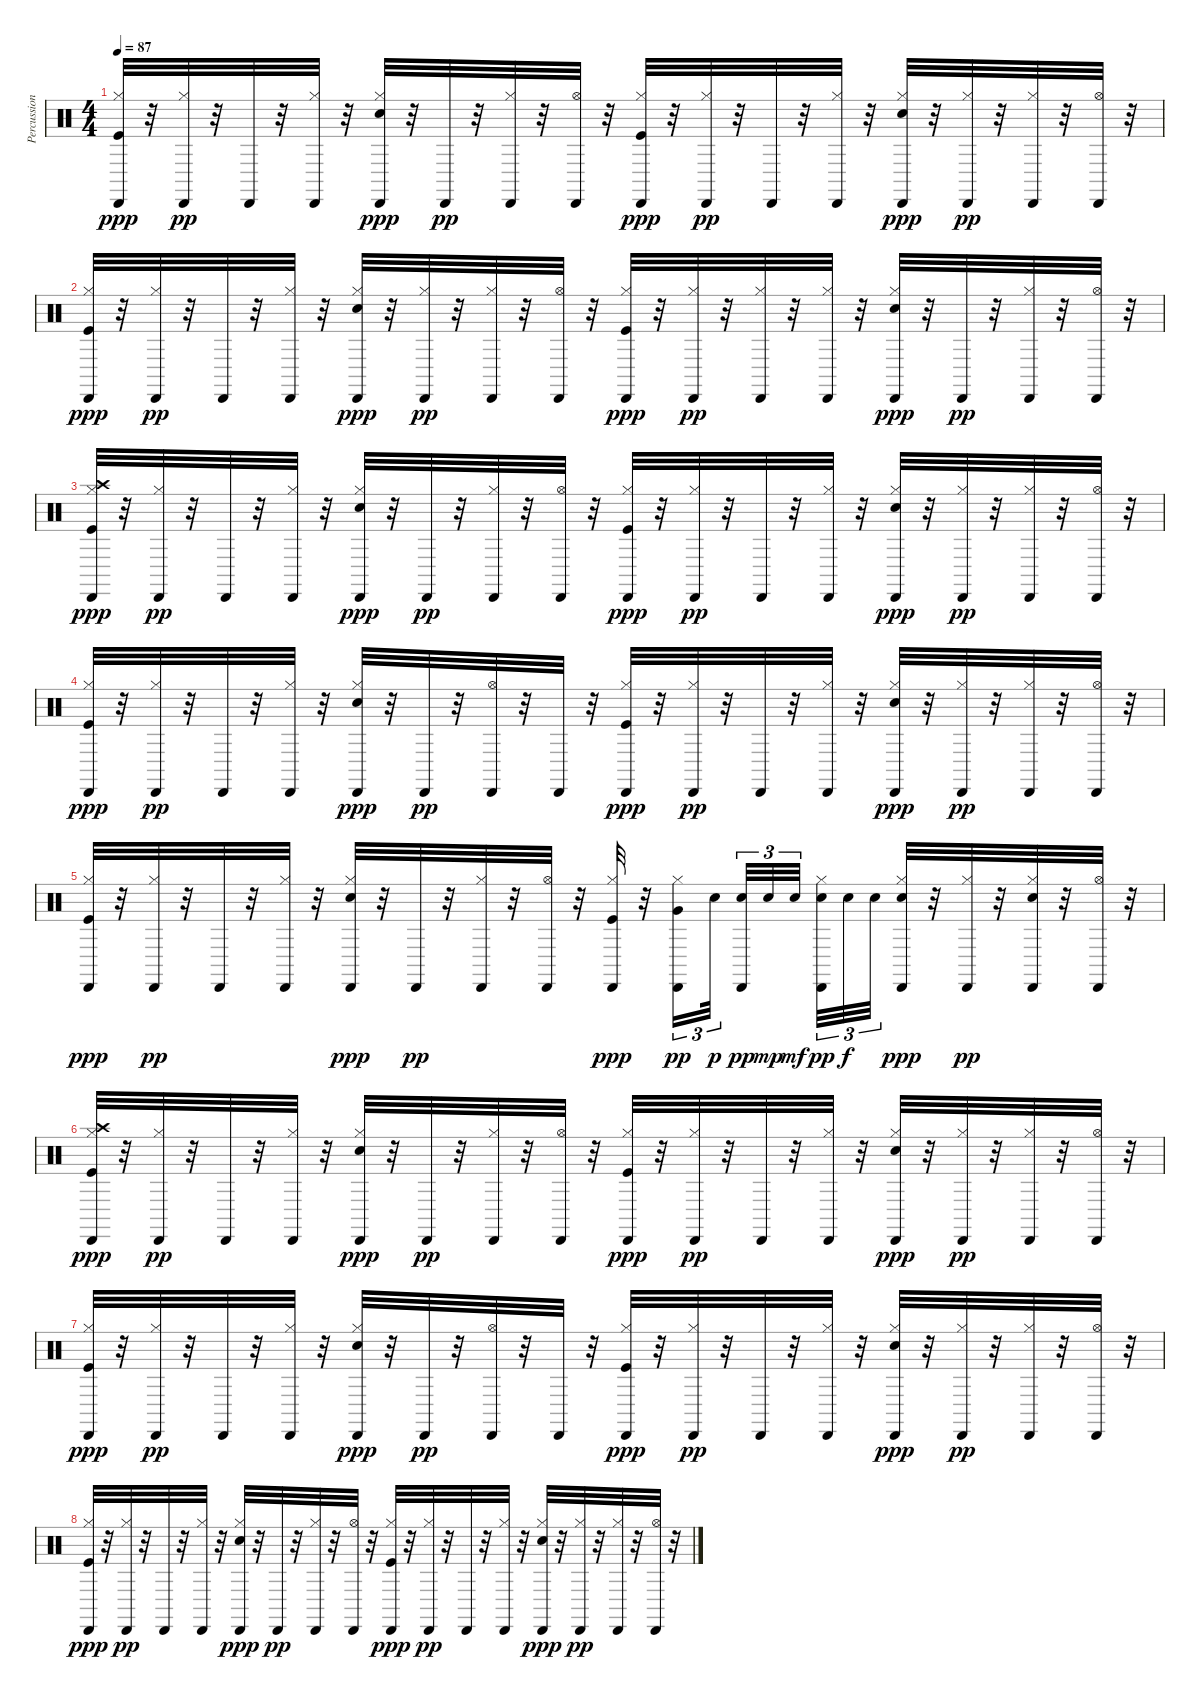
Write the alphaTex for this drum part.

\track ("Percussion" "Percussion") {instrument percussion}
\staff {score}
\articulation defaults
\ts (4 4)
\tempo 87
\clef neutral
\ks c
("Kick (hit)" "Hi-Hat (closed)" "Cabasa (hit)").32{dy ppp} r.32 ("Hi-Hat (closed)" "Cabasa (hit)").32{dy pp} r.32 "Cabasa (hit)".32 r.32 ("Hi-Hat (closed)" "Cabasa (hit)").32 r.32 ("Snare (hit) 2" "Hi-Hat (closed)" "Cabasa (hit)").32{dy ppp} r.32 "Cabasa (hit)".32{dy pp} r.32 ("Hi-Hat (closed)" "Cabasa (hit)").32 r.32 ("Hi-Hat (open)" "Cabasa (hit)").32 r.32 ("Kick (hit)" "Hi-Hat (closed)" "Cabasa (hit)").32{dy ppp} r.32 ("Hi-Hat (closed)" "Cabasa (hit)").32{dy pp} r.32 "Cabasa (hit)".32 r.32 ("Hi-Hat (closed)" "Cabasa (hit)").32 r.32 ("Snare (hit) 2" "Hi-Hat (closed)" "Cabasa (hit)").32{dy ppp} r.32 ("Hi-Hat (closed)" "Cabasa (hit)").32{dy pp} r.32 ("Hi-Hat (closed)" "Cabasa (hit)").32 r.32 ("Hi-Hat (open)" "Cabasa (hit)").32 r.32 |
("Kick (hit)" "Hi-Hat (closed)" "Cabasa (hit)").32{dy ppp} r.32 ("Hi-Hat (closed)" "Cabasa (hit)").32{dy pp} r.32 "Cabasa (hit)".32 r.32 ("Hi-Hat (closed)" "Cabasa (hit)").32 r.32 ("Snare (hit) 2" "Hi-Hat (closed)" "Cabasa (hit)").32{dy ppp} r.32 ("Hi-Hat (closed)" "Cabasa (hit)").32{dy pp} r.32 ("Hi-Hat (closed)" "Cabasa (hit)").32 r.32 ("Hi-Hat (open)" "Cabasa (hit)").32 r.32 ("Kick (hit)" "Hi-Hat (closed)" "Cabasa (hit)").32{dy ppp} r.32 ("Hi-Hat (closed)" "Cabasa (hit)").32{dy pp} r.32 ("Hi-Hat (closed)" "Cabasa (hit)").32 r.32 ("Hi-Hat (closed)" "Cabasa (hit)").32 r.32 ("Snare (hit) 2" "Hi-Hat (closed)" "Cabasa (hit)").32{dy ppp} r.32 "Cabasa (hit)".32{dy pp} r.32 ("Hi-Hat (closed)" "Cabasa (hit)").32 r.32 ("Hi-Hat (open)" "Cabasa (hit)").32 r.32 |
("Kick (hit)" "Hi-Hat (closed)" "Crash high (hit)" "Cabasa (hit)").32{dy ppp} r.32 ("Hi-Hat (closed)" "Cabasa (hit)").32{dy pp} r.32 "Cabasa (hit)".32 r.32 ("Hi-Hat (closed)" "Cabasa (hit)").32 r.32 ("Snare (hit) 2" "Hi-Hat (closed)" "Cabasa (hit)").32{dy ppp} r.32 "Cabasa (hit)".32{dy pp} r.32 ("Hi-Hat (closed)" "Cabasa (hit)").32 r.32 ("Hi-Hat (open)" "Cabasa (hit)").32 r.32 ("Kick (hit)" "Hi-Hat (closed)" "Cabasa (hit)").32{dy ppp} r.32 ("Hi-Hat (closed)" "Cabasa (hit)").32{dy pp} r.32 "Cabasa (hit)".32 r.32 ("Hi-Hat (closed)" "Cabasa (hit)").32 r.32 ("Snare (hit) 2" "Hi-Hat (closed)" "Cabasa (hit)").32{dy ppp} r.32 ("Hi-Hat (closed)" "Cabasa (hit)").32{dy pp} r.32 ("Hi-Hat (closed)" "Cabasa (hit)").32 r.32 ("Hi-Hat (open)" "Cabasa (hit)").32 r.32 |
("Kick (hit)" "Hi-Hat (closed)" "Cabasa (hit)").32{dy ppp} r.32 ("Hi-Hat (closed)" "Cabasa (hit)").32{dy pp} r.32 "Cabasa (hit)".32 r.32 ("Hi-Hat (closed)" "Cabasa (hit)").32 r.32 ("Snare (hit) 2" "Hi-Hat (closed)" "Cabasa (hit)").32{dy ppp} r.32 "Cabasa (hit)".32{dy pp} r.32 ("Hi-Hat (open)" "Cabasa (hit)").32 r.32 "Cabasa (hit)".32 r.32 ("Kick (hit)" "Hi-Hat (closed)" "Cabasa (hit)").32{dy ppp} r.32 ("Hi-Hat (closed)" "Cabasa (hit)").32{dy pp} r.32 "Cabasa (hit)".32 r.32 ("Hi-Hat (closed)" "Cabasa (hit)").32 r.32 ("Snare (hit) 2" "Hi-Hat (closed)" "Cabasa (hit)").32{dy ppp} r.32 ("Hi-Hat (closed)" "Cabasa (hit)").32{dy pp} r.32 ("Hi-Hat (closed)" "Cabasa (hit)").32 r.32 ("Hi-Hat (open)" "Cabasa (hit)").32 r.32 |
("Kick (hit)" "Hi-Hat (closed)" "Cabasa (hit)").32{dy ppp} r.32 ("Hi-Hat (closed)" "Cabasa (hit)").32{dy pp} r.32 "Cabasa (hit)".32 r.32 ("Hi-Hat (closed)" "Cabasa (hit)").32 r.32 ("Snare (hit) 2" "Hi-Hat (closed)" "Cabasa (hit)").32{dy ppp} r.32 "Cabasa (hit)".32{dy pp} r.32 ("Hi-Hat (closed)" "Cabasa (hit)").32 r.32 ("Hi-Hat (open)" "Cabasa (hit)").32 r.32 ("Kick (hit)" "Hi-Hat (closed)" "Cabasa (hit)").32{dy ppp} r.32 ("Hi-Hat (closed)" "Very Low Tom (hit)" "Cabasa (hit)").16{tu (3 2) dy pp} "Snare (hit) 2".32{tu (3 2) dy p beam splitsecondary} ("Snare (hit) 2" "Cabasa (hit)").32{tu (3 2) dy pp} "Snare (hit) 2".32{tu (3 2) dy mp} "Snare (hit) 2".32{tu (3 2) dy mf beam splitsecondary} ("Snare (hit) 2" "Hi-Hat (closed)" "Cabasa (hit)").32{tu (3 2) dy pp} "Snare (hit) 2".32{tu (3 2) dy f} "Snare (hit) 2".32{tu (3 2)} ("Snare (hit) 2" "Hi-Hat (closed)" "Cabasa (hit)").32{dy ppp} r.32 ("Hi-Hat (closed)" "Cabasa (hit)").32{dy pp} r.32 ("Snare (hit) 2" "Hi-Hat (closed)" "Cabasa (hit)").32 r.32 ("Hi-Hat (open)" "Cabasa (hit)").32 r.32 |
("Kick (hit)" "Hi-Hat (closed)" "Crash high (hit)" "Cabasa (hit)").32{dy ppp} r.32 ("Hi-Hat (closed)" "Cabasa (hit)").32{dy pp} r.32 "Cabasa (hit)".32 r.32 ("Hi-Hat (closed)" "Cabasa (hit)").32 r.32 ("Snare (hit) 2" "Hi-Hat (closed)" "Cabasa (hit)").32{dy ppp} r.32 "Cabasa (hit)".32{dy pp} r.32 ("Hi-Hat (closed)" "Cabasa (hit)").32 r.32 ("Hi-Hat (open)" "Cabasa (hit)").32 r.32 ("Kick (hit)" "Hi-Hat (closed)" "Cabasa (hit)").32{dy ppp} r.32 ("Hi-Hat (closed)" "Cabasa (hit)").32{dy pp} r.32 "Cabasa (hit)".32 r.32 ("Hi-Hat (closed)" "Cabasa (hit)").32 r.32 ("Snare (hit) 2" "Hi-Hat (closed)" "Cabasa (hit)").32{dy ppp} r.32 ("Hi-Hat (closed)" "Cabasa (hit)").32{dy pp} r.32 ("Hi-Hat (closed)" "Cabasa (hit)").32 r.32 ("Hi-Hat (open)" "Cabasa (hit)").32 r.32 |
("Kick (hit)" "Hi-Hat (closed)" "Cabasa (hit)").32{dy ppp} r.32 ("Hi-Hat (closed)" "Cabasa (hit)").32{dy pp} r.32 "Cabasa (hit)".32 r.32 ("Hi-Hat (closed)" "Cabasa (hit)").32 r.32 ("Snare (hit) 2" "Hi-Hat (closed)" "Cabasa (hit)").32{dy ppp} r.32 "Cabasa (hit)".32{dy pp} r.32 ("Hi-Hat (open)" "Cabasa (hit)").32 r.32 "Cabasa (hit)".32 r.32 ("Kick (hit)" "Hi-Hat (closed)" "Cabasa (hit)").32{dy ppp} r.32 ("Hi-Hat (closed)" "Cabasa (hit)").32{dy pp} r.32 "Cabasa (hit)".32 r.32 ("Hi-Hat (closed)" "Cabasa (hit)").32 r.32 ("Snare (hit) 2" "Hi-Hat (closed)" "Cabasa (hit)").32{dy ppp} r.32 ("Hi-Hat (closed)" "Cabasa (hit)").32{dy pp} r.32 ("Hi-Hat (closed)" "Cabasa (hit)").32 r.32 ("Hi-Hat (open)" "Cabasa (hit)").32 r.32 |
("Kick (hit)" "Hi-Hat (closed)" "Cabasa (hit)").32{dy ppp} r.32 ("Hi-Hat (closed)" "Cabasa (hit)").32{dy pp} r.32 "Cabasa (hit)".32 r.32 ("Hi-Hat (closed)" "Cabasa (hit)").32 r.32 ("Snare (hit) 2" "Hi-Hat (closed)" "Cabasa (hit)").32{dy ppp} r.32 "Cabasa (hit)".32{dy pp} r.32 ("Hi-Hat (closed)" "Cabasa (hit)").32 r.32 ("Hi-Hat (open)" "Cabasa (hit)").32 r.32 ("Kick (hit)" "Hi-Hat (closed)" "Cabasa (hit)").32{dy ppp} r.32 ("Hi-Hat (closed)" "Cabasa (hit)").32{dy pp} r.32 "Cabasa (hit)".32 r.32 ("Hi-Hat (closed)" "Cabasa (hit)").32 r.32 ("Snare (hit) 2" "Hi-Hat (closed)" "Cabasa (hit)").32{dy ppp} r.32 ("Hi-Hat (closed)" "Cabasa (hit)").32{dy pp} r.32 ("Hi-Hat (closed)" "Cabasa (hit)").32 r.32 ("Hi-Hat (open)" "Cabasa (hit)").32 r.32
